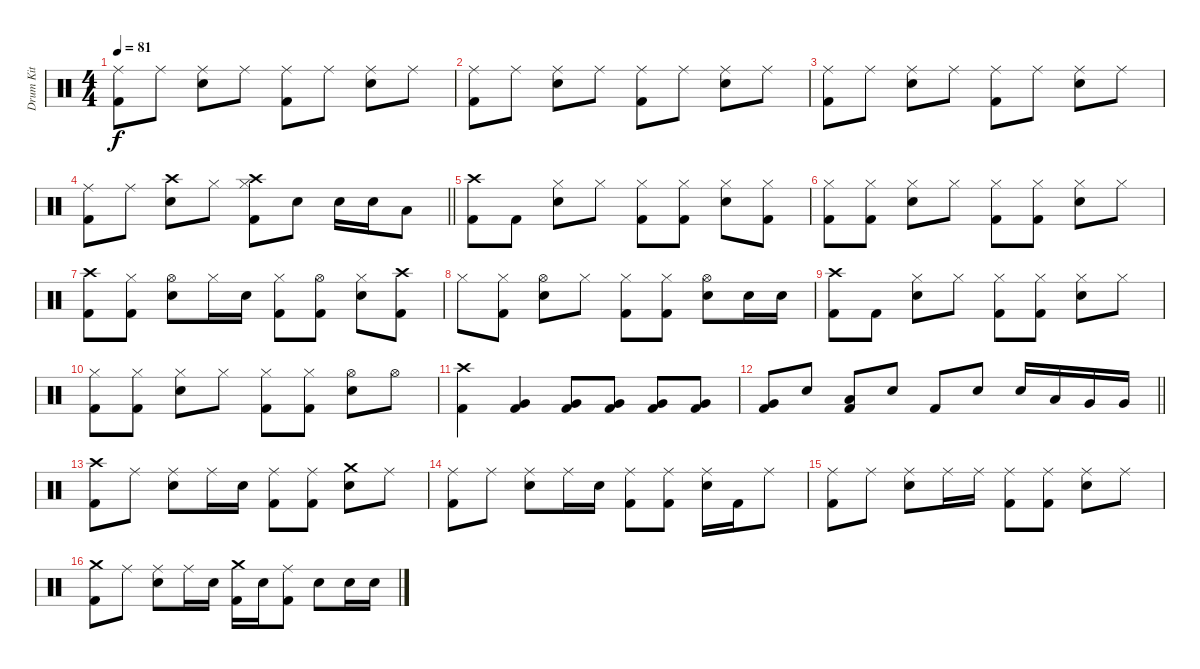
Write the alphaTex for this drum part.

\track ("Drum Kit" "Drum Kit") {instrument percussion}
\staff {score}
\articulation defaults
\ts (4 4)
\tempo 81
\clef neutral
\ks c
("Ride (middle)" "Kick (hit) 2").8{dy f} "Ride (middle)".8 ("Ride (middle)" "Snare (hit) 2").8 "Ride (middle)".8 ("Ride (middle)" "Kick (hit) 2").8 "Ride (middle)".8 ("Ride (middle)" "Snare (hit) 2").8 "Ride (middle)".8 |
("Ride (middle)" "Kick (hit) 2").8 "Ride (middle)".8 ("Ride (middle)" "Snare (hit) 2").8 "Ride (middle)".8 ("Ride (middle)" "Kick (hit) 2").8 "Ride (middle)".8 ("Ride (middle)" "Snare (hit) 2").8 "Ride (middle)".8 |
("Ride (middle)" "Kick (hit) 2").8 "Ride (middle)".8 ("Ride (middle)" "Snare (hit) 2").8 "Ride (middle)".8 ("Ride (middle)" "Kick (hit) 2").8 "Ride (middle)".8 ("Ride (middle)" "Snare (hit) 2").8 "Ride (middle)".8 |
\barLineRight lightlight
("Ride (middle)" "Kick (hit) 2").8 "Ride (middle)".8 ("Crash high (hit)" "Snare (hit) 2").8 "Hi-Hat (closed)".8 ("Crash high (hit)" "Hi-Hat (closed)" "Kick (hit) 2").8 "Snare (hit) 2".8 "Snare (hit) 2".16 "Snare (hit) 2".16 "Low Tom (hit)".8 |
("Crash high (hit)" "Kick (hit) 2").8 "Kick (hit) 2".8 ("Hi-Hat (closed)" "Snare (hit) 2").8 "Hi-Hat (closed)".8 ("Hi-Hat (closed)" "Kick (hit) 2").8 ("Hi-Hat (closed)" "Kick (hit) 2").8 ("Hi-Hat (closed)" "Snare (hit) 2").8 ("Hi-Hat (closed)" "Kick (hit) 2").8 |
("Hi-Hat (closed)" "Kick (hit) 2").8 ("Hi-Hat (closed)" "Kick (hit) 2").8 ("Hi-Hat (closed)" "Snare (hit) 2").8 "Hi-Hat (closed)".8 ("Hi-Hat (closed)" "Kick (hit) 2").8 ("Hi-Hat (closed)" "Kick (hit) 2").8 ("Hi-Hat (closed)" "Snare (hit) 2").8 "Hi-Hat (closed)".8 |
("Crash high (hit)" "Kick (hit) 2").8 ("Hi-Hat (closed)" "Kick (hit) 2").8 ("Hi-Hat (open)" "Snare (hit) 2").8 "Hi-Hat (closed)".16 "Snare (hit) 2".16 ("Hi-Hat (closed)" "Kick (hit) 2").8 ("Hi-Hat (open)" "Kick (hit) 2").8 ("Hi-Hat (closed)" "Snare (hit) 2").8 ("Crash high (hit)" "Kick (hit) 2").8 |
"Hi-Hat (closed)".8 ("Hi-Hat (closed)" "Kick (hit) 2").8 ("Hi-Hat (open)" "Snare (hit) 2").8 "Hi-Hat (closed)".8 ("Hi-Hat (closed)" "Kick (hit) 2").8 ("Hi-Hat (closed)" "Kick (hit) 2").8 ("Hi-Hat (open)" "Snare (hit) 2").8 "Snare (hit) 2".16 "Snare (hit) 2".16 |
("Crash high (hit)" "Kick (hit) 2").8 "Kick (hit) 2".8 ("Hi-Hat (closed)" "Snare (hit) 2").8 "Hi-Hat (closed)".8 ("Hi-Hat (closed)" "Kick (hit) 2").8 ("Hi-Hat (closed)" "Kick (hit) 2").8 ("Hi-Hat (closed)" "Snare (hit) 2").8 "Hi-Hat (closed)".8 |
("Hi-Hat (closed)" "Kick (hit) 2").8 ("Hi-Hat (closed)" "Kick (hit) 2").8 ("Hi-Hat (closed)" "Snare (hit) 2").8 "Hi-Hat (closed)".8 ("Hi-Hat (closed)" "Kick (hit) 2").8 ("Hi-Hat (closed)" "Kick (hit) 2").8 ("Hi-Hat (open)" "Snare (hit) 2").8 "Hi-Hat (open)".8 |
("Crash high (hit)" "Kick (hit) 2").4 ("Very Low Tom (hit)" "Kick (hit) 2").4 ("Very Low Tom (hit)" "Kick (hit) 2").8 ("Very Low Tom (hit)" "Kick (hit) 2").8 ("Very Low Tom (hit)" "Kick (hit) 2").8 ("Very Low Tom (hit)" "Kick (hit) 2").8 |
\barLineRight lightlight
("Very Low Tom (hit)" "Kick (hit) 2").8 "Snare (hit) 2".8 ("Low Tom (hit)" "Kick (hit) 2").8 "Snare (hit) 2".8 "Kick (hit) 2".8 "Snare (hit) 2".8 "Snare (hit) 2".16 "Low Tom (hit)".16 "Very Low Tom (hit)".16 "Very Low Tom (hit)".16 |
("Crash high (hit)" "Kick (hit) 2").8 "Ride (middle)".8 ("Ride (middle)" "Snare (hit) 2").8 "Ride (middle)".16 "Snare (hit) 2".16 ("Ride (middle)" "Kick (hit) 2").8 ("Ride (middle)" "Kick (hit) 2").8 ("Crash medium (hit)" "Snare (hit) 2").8 "Ride (middle)".8 |
("Ride (middle)" "Kick (hit) 2").8 "Ride (middle)".8 ("Ride (middle)" "Snare (hit) 2").8 "Ride (middle)".16 "Snare (hit) 2".16 ("Ride (middle)" "Kick (hit) 2").8 ("Ride (middle)" "Kick (hit) 2").8 ("Ride (middle)" "Snare (hit) 2").16 "Kick (hit) 2".16 "Ride (middle)".8 |
("Ride (middle)" "Kick (hit) 2").8 "Ride (middle)".8 ("Ride (middle)" "Snare (hit) 2").8 "Ride (middle)".16 "Ride (middle)".16 ("Ride (middle)" "Kick (hit) 2").8 ("Ride (middle)" "Kick (hit) 2").8 ("Ride (middle)" "Snare (hit) 2").8 "Ride (middle)".8 |
("Crash medium (hit)" "Kick (hit) 2").8 "Ride (middle)".8 ("Ride (middle)" "Snare (hit) 2").8 "Ride (middle)".16 "Snare (hit) 2".16 ("Crash medium (hit)" "Kick (hit) 2").16 "Snare (hit) 2".16 ("Ride (middle)" "Kick (hit) 2").8 "Snare (hit) 2".8 "Snare (hit) 2".16 "Snare (hit) 2".16
